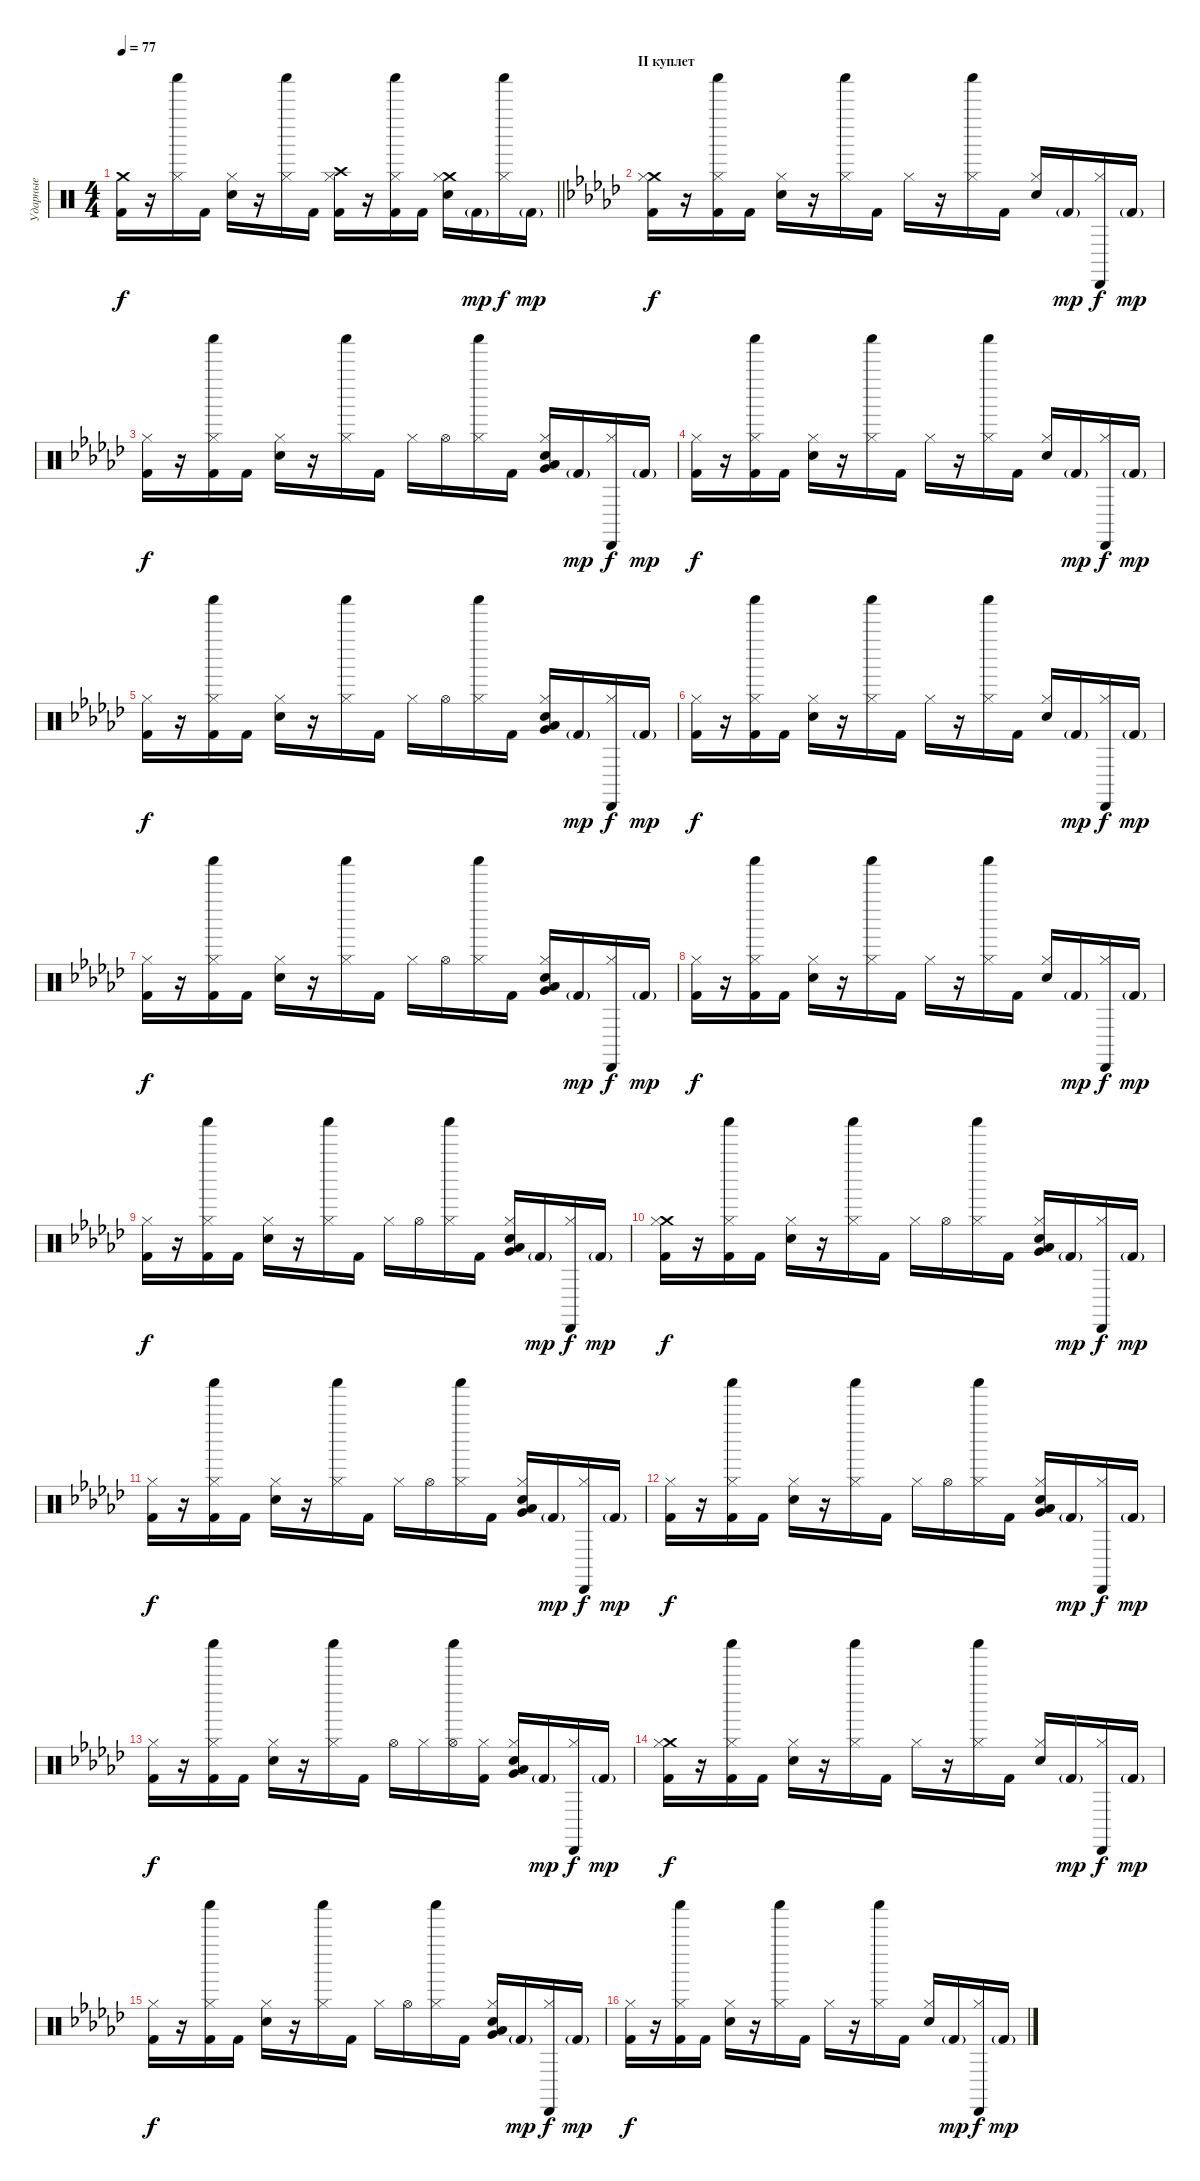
\track ("Ударные" "Ударные") {instrument percussion}
\staff {score}
\articulation defaults
\ts (4 4)
\tempo 77
\clef neutral
\barLineRight lightlight
\ks c
("Crash medium (hit)" "Kick (hit) 2").16{dy f} r.16 ("Hi-Hat (closed)" "Shaker (hit)").16 "Kick (hit) 2".16 ("Electric Snare (hit)" "Hi-Hat (closed)").16 r.16 ("Hi-Hat (closed)" "Shaker (hit)").16 "Kick (hit) 2".16 ("Crash high (hit)" "Kick (hit) 2" "Hi-Hat (closed)").16 r.16 ("Kick (hit) 2" "Hi-Hat (closed)" "Shaker (hit)").16 "Kick (hit) 2".16 ("Crash medium (hit)" "Electric Snare (hit)" "Hi-Hat (closed)").16 "Kick (hit) 2"{g}.16{dy mp} ("Hi-Hat (closed)" "Shaker (hit)").16{dy f} "Kick (hit) 2"{g}.16{dy mp} |
\section ("" "II куплет")
\ks ebminor
("Crash medium (hit)" "Kick (hit) 2" "Hi-Hat (closed)").16{dy f} r.16 ("Kick (hit) 2" "Hi-Hat (closed)" "Shaker (hit)").16 "Kick (hit) 2".16 ("Electric Snare (hit)" "Hi-Hat (closed)").16 r.16 ("Hi-Hat (closed)" "Shaker (hit)").16 "Kick (hit) 2".16 "Hi-Hat (closed)".16 r.16 ("Hi-Hat (closed)" "Shaker (hit)").16 "Kick (hit) 2".16 ("Electric Snare (hit)" "Hi-Hat (closed)").16 "Kick (hit) 2"{g}.16{dy mp} ("Hi-Hat (closed)" "Cabasa (hit)").16{dy f} "Kick (hit) 2"{g}.16{dy mp} |
("Kick (hit) 2" "Hi-Hat (closed)").16{dy f} r.16 ("Kick (hit) 2" "Hi-Hat (closed)" "Shaker (hit)").16 "Kick (hit) 2".16 ("Electric Snare (hit)" "Hi-Hat (closed)").16 r.16 ("Hi-Hat (closed)" "Shaker (hit)").16 "Kick (hit) 2".16 "Hi-Hat (closed)".16 "Hi-Hat (open)".16 ("Hi-Hat (closed)" "Shaker (hit)").16 "Kick (hit) 2".16 ("Very Low Tom (hit)" "Electric Snare (hit)" "Hi-Hat (closed)" "Low Floor Tom (hit)").16 "Kick (hit) 2"{g}.16{dy mp} ("Hi-Hat (closed)" "Cabasa (hit)").16{dy f} "Kick (hit) 2"{g}.16{dy mp} |
("Kick (hit) 2" "Hi-Hat (closed)").16{dy f} r.16 ("Kick (hit) 2" "Hi-Hat (closed)" "Shaker (hit)").16 "Kick (hit) 2".16 ("Electric Snare (hit)" "Hi-Hat (closed)").16 r.16 ("Hi-Hat (closed)" "Shaker (hit)").16 "Kick (hit) 2".16 "Hi-Hat (closed)".16 r.16 ("Hi-Hat (closed)" "Shaker (hit)").16 "Kick (hit) 2".16 ("Electric Snare (hit)" "Hi-Hat (closed)").16 "Kick (hit) 2"{g}.16{dy mp} ("Hi-Hat (closed)" "Cabasa (hit)").16{dy f} "Kick (hit) 2"{g}.16{dy mp} |
("Kick (hit) 2" "Hi-Hat (closed)").16{dy f} r.16 ("Kick (hit) 2" "Hi-Hat (closed)" "Shaker (hit)").16 "Kick (hit) 2".16 ("Electric Snare (hit)" "Hi-Hat (closed)").16 r.16 ("Hi-Hat (closed)" "Shaker (hit)").16 "Kick (hit) 2".16 "Hi-Hat (closed)".16 "Hi-Hat (open)".16 ("Hi-Hat (closed)" "Shaker (hit)").16 "Kick (hit) 2".16 ("Very Low Tom (hit)" "Electric Snare (hit)" "Hi-Hat (closed)" "Low Floor Tom (hit)").16 "Kick (hit) 2"{g}.16{dy mp} ("Hi-Hat (closed)" "Cabasa (hit)").16{dy f} "Kick (hit) 2"{g}.16{dy mp} |
("Kick (hit) 2" "Hi-Hat (closed)").16{dy f} r.16 ("Kick (hit) 2" "Hi-Hat (closed)" "Shaker (hit)").16 "Kick (hit) 2".16 ("Electric Snare (hit)" "Hi-Hat (closed)").16 r.16 ("Hi-Hat (closed)" "Shaker (hit)").16 "Kick (hit) 2".16 "Hi-Hat (closed)".16 r.16 ("Hi-Hat (closed)" "Shaker (hit)").16 "Kick (hit) 2".16 ("Electric Snare (hit)" "Hi-Hat (closed)").16 "Kick (hit) 2"{g}.16{dy mp} ("Hi-Hat (closed)" "Cabasa (hit)").16{dy f} "Kick (hit) 2"{g}.16{dy mp} |
("Kick (hit) 2" "Hi-Hat (closed)").16{dy f} r.16 ("Kick (hit) 2" "Hi-Hat (closed)" "Shaker (hit)").16 "Kick (hit) 2".16 ("Electric Snare (hit)" "Hi-Hat (closed)").16 r.16 ("Hi-Hat (closed)" "Shaker (hit)").16 "Kick (hit) 2".16 "Hi-Hat (closed)".16 "Hi-Hat (open)".16 ("Hi-Hat (closed)" "Shaker (hit)").16 "Kick (hit) 2".16 ("Very Low Tom (hit)" "Electric Snare (hit)" "Hi-Hat (closed)" "Low Floor Tom (hit)").16 "Kick (hit) 2"{g}.16{dy mp} ("Hi-Hat (closed)" "Cabasa (hit)").16{dy f} "Kick (hit) 2"{g}.16{dy mp} |
("Kick (hit) 2" "Hi-Hat (closed)").16{dy f} r.16 ("Kick (hit) 2" "Hi-Hat (closed)" "Shaker (hit)").16 "Kick (hit) 2".16 ("Electric Snare (hit)" "Hi-Hat (closed)").16 r.16 ("Hi-Hat (closed)" "Shaker (hit)").16 "Kick (hit) 2".16 "Hi-Hat (closed)".16 r.16 ("Hi-Hat (closed)" "Shaker (hit)").16 "Kick (hit) 2".16 ("Electric Snare (hit)" "Hi-Hat (closed)").16 "Kick (hit) 2"{g}.16{dy mp} ("Hi-Hat (closed)" "Cabasa (hit)").16{dy f} "Kick (hit) 2"{g}.16{dy mp} |
("Kick (hit) 2" "Hi-Hat (closed)").16{dy f} r.16 ("Kick (hit) 2" "Hi-Hat (closed)" "Shaker (hit)").16 "Kick (hit) 2".16 ("Electric Snare (hit)" "Hi-Hat (closed)").16 r.16 ("Hi-Hat (closed)" "Shaker (hit)").16 "Kick (hit) 2".16 "Hi-Hat (closed)".16 "Hi-Hat (open)".16 ("Hi-Hat (closed)" "Shaker (hit)").16 "Kick (hit) 2".16 ("Very Low Tom (hit)" "Electric Snare (hit)" "Hi-Hat (closed)" "Low Floor Tom (hit)").16 "Kick (hit) 2"{g}.16{dy mp} ("Hi-Hat (closed)" "Cabasa (hit)").16{dy f} "Kick (hit) 2"{g}.16{dy mp} |
("Crash medium (hit)" "Kick (hit) 2" "Hi-Hat (closed)").16{dy f} r.16 ("Kick (hit) 2" "Hi-Hat (closed)" "Shaker (hit)").16 "Kick (hit) 2".16 ("Electric Snare (hit)" "Hi-Hat (closed)").16 r.16 ("Hi-Hat (closed)" "Shaker (hit)").16 "Kick (hit) 2".16 "Hi-Hat (closed)".16 "Hi-Hat (open)".16 ("Hi-Hat (closed)" "Shaker (hit)").16 "Kick (hit) 2".16 ("Very Low Tom (hit)" "Electric Snare (hit)" "Hi-Hat (closed)" "Low Floor Tom (hit)").16 "Kick (hit) 2"{g}.16{dy mp} ("Hi-Hat (closed)" "Cabasa (hit)").16{dy f} "Kick (hit) 2"{g}.16{dy mp} |
("Kick (hit) 2" "Hi-Hat (closed)").16{dy f} r.16 ("Kick (hit) 2" "Hi-Hat (closed)" "Shaker (hit)").16 "Kick (hit) 2".16 ("Electric Snare (hit)" "Hi-Hat (closed)").16 r.16 ("Hi-Hat (closed)" "Shaker (hit)").16 "Kick (hit) 2".16 "Hi-Hat (closed)".16 "Hi-Hat (open)".16 ("Hi-Hat (closed)" "Shaker (hit)").16 "Kick (hit) 2".16 ("Very Low Tom (hit)" "Electric Snare (hit)" "Hi-Hat (closed)" "Low Floor Tom (hit)").16 "Kick (hit) 2"{g}.16{dy mp} ("Hi-Hat (closed)" "Cabasa (hit)").16{dy f} "Kick (hit) 2"{g}.16{dy mp} |
("Kick (hit) 2" "Hi-Hat (closed)").16{dy f} r.16 ("Kick (hit) 2" "Hi-Hat (closed)" "Shaker (hit)").16 "Kick (hit) 2".16 ("Electric Snare (hit)" "Hi-Hat (closed)").16 r.16 ("Hi-Hat (closed)" "Shaker (hit)").16 "Kick (hit) 2".16 "Hi-Hat (closed)".16 "Hi-Hat (open)".16 ("Hi-Hat (closed)" "Shaker (hit)").16 "Kick (hit) 2".16 ("Very Low Tom (hit)" "Electric Snare (hit)" "Hi-Hat (closed)" "Low Floor Tom (hit)").16 "Kick (hit) 2"{g}.16{dy mp} ("Hi-Hat (closed)" "Cabasa (hit)").16{dy f} "Kick (hit) 2"{g}.16{dy mp} |
("Kick (hit) 2" "Hi-Hat (closed)").16{dy f} r.16 ("Kick (hit) 2" "Hi-Hat (closed)" "Shaker (hit)").16 "Kick (hit) 2".16 ("Electric Snare (hit)" "Hi-Hat (closed)").16 r.16 ("Hi-Hat (closed)" "Shaker (hit)").16 "Kick (hit) 2".16 "Hi-Hat (open)".16 "Hi-Hat (closed)".16 ("Hi-Hat (open)" "Shaker (hit)").16 ("Hi-Hat (closed)" "Kick (hit) 2").16 ("Very Low Tom (hit)" "Electric Snare (hit)" "Hi-Hat (closed)" "Low Floor Tom (hit)").16 "Kick (hit) 2"{g}.16{dy mp} ("Hi-Hat (closed)" "Cabasa (hit)").16{dy f} "Kick (hit) 2"{g}.16{dy mp} |
("Crash medium (hit)" "Kick (hit) 2" "Hi-Hat (closed)").16{dy f} r.16 ("Kick (hit) 2" "Hi-Hat (closed)" "Shaker (hit)").16 "Kick (hit) 2".16 ("Electric Snare (hit)" "Hi-Hat (closed)").16 r.16 ("Hi-Hat (closed)" "Shaker (hit)").16 "Kick (hit) 2".16 "Hi-Hat (closed)".16 r.16 ("Hi-Hat (closed)" "Shaker (hit)").16 "Kick (hit) 2".16 ("Electric Snare (hit)" "Hi-Hat (closed)").16 "Kick (hit) 2"{g}.16{dy mp} ("Hi-Hat (closed)" "Cabasa (hit)").16{dy f} "Kick (hit) 2"{g}.16{dy mp} |
("Kick (hit) 2" "Hi-Hat (closed)").16{dy f} r.16 ("Kick (hit) 2" "Hi-Hat (closed)" "Shaker (hit)").16 "Kick (hit) 2".16 ("Electric Snare (hit)" "Hi-Hat (closed)").16 r.16 ("Hi-Hat (closed)" "Shaker (hit)").16 "Kick (hit) 2".16 "Hi-Hat (closed)".16 "Hi-Hat (open)".16 ("Hi-Hat (closed)" "Shaker (hit)").16 "Kick (hit) 2".16 ("Very Low Tom (hit)" "Electric Snare (hit)" "Hi-Hat (closed)" "Low Floor Tom (hit)").16 "Kick (hit) 2"{g}.16{dy mp} ("Hi-Hat (closed)" "Cabasa (hit)").16{dy f} "Kick (hit) 2"{g}.16{dy mp} |
("Kick (hit) 2" "Hi-Hat (closed)").16{dy f} r.16 ("Kick (hit) 2" "Hi-Hat (closed)" "Shaker (hit)").16 "Kick (hit) 2".16 ("Electric Snare (hit)" "Hi-Hat (closed)").16 r.16 ("Hi-Hat (closed)" "Shaker (hit)").16 "Kick (hit) 2".16 "Hi-Hat (closed)".16 r.16 ("Hi-Hat (closed)" "Shaker (hit)").16 "Kick (hit) 2".16 ("Electric Snare (hit)" "Hi-Hat (closed)").16 "Kick (hit) 2"{g}.16{dy mp} ("Hi-Hat (closed)" "Cabasa (hit)").16{dy f} "Kick (hit) 2"{g}.16{dy mp}
